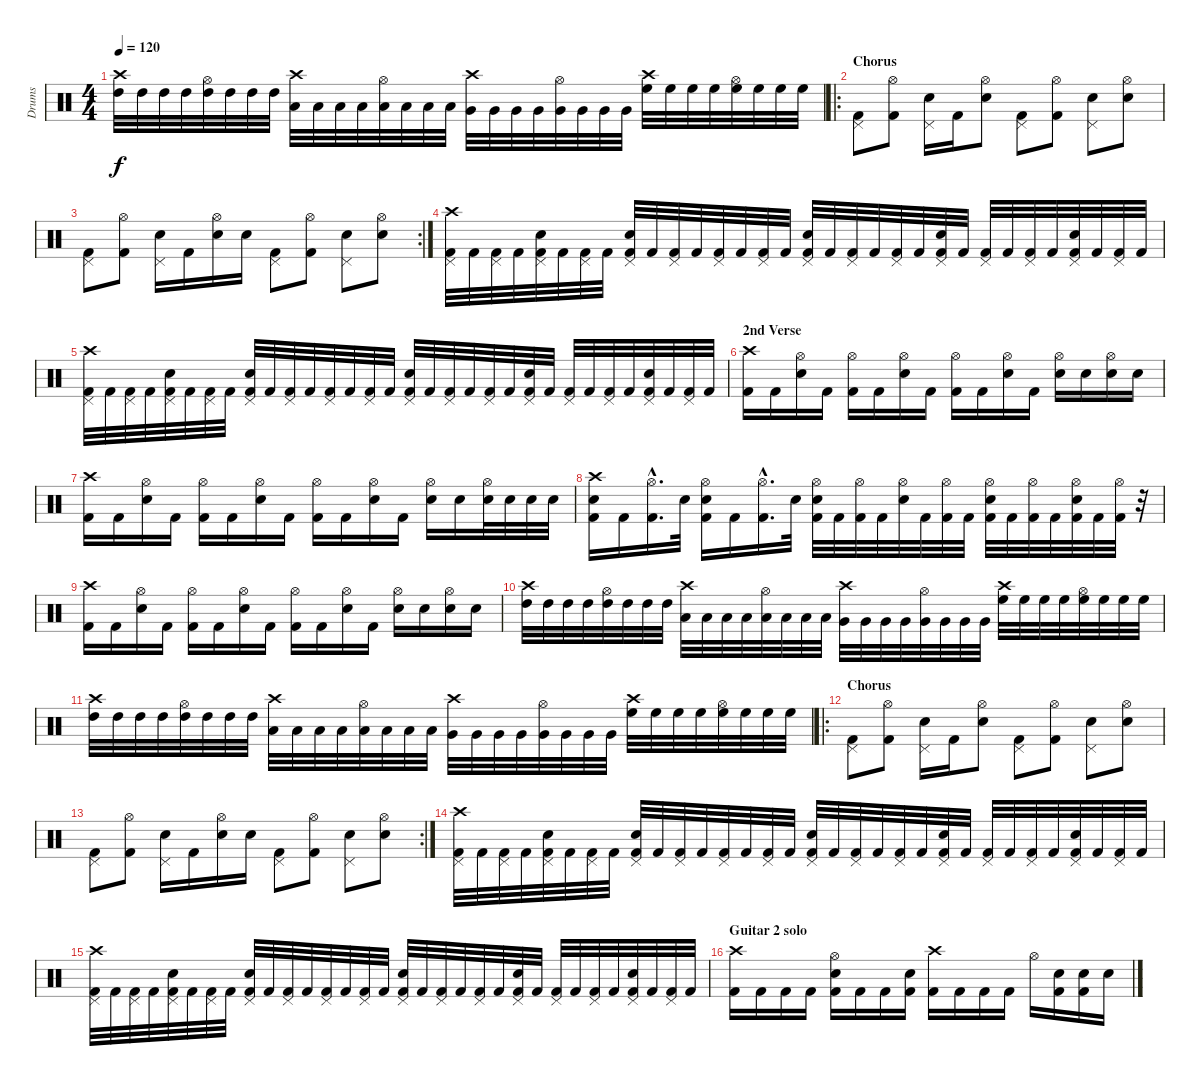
\track ("Drums" "Drums") {instrument percussion}
\staff {score}
\articulation defaults
\ts (4 4)
\tempo 120
\clef neutral
\ks c
("Crash high (hit)" "High Tom (hit)").32{dy f} "High Tom (hit)".32 "High Tom (hit)".32 "High Tom (hit)".32 ("Hi-Hat (open)" "High Tom (hit)").32 "High Tom (hit)".32 "High Tom (hit)".32 "High Tom (hit)".32 ("Crash high (hit)" "Low Tom (hit)").32 "Low Tom (hit)".32 "Low Tom (hit)".32 "Low Tom (hit)".32 ("Hi-Hat (open)" "Low Tom (hit)").32 "Low Tom (hit)".32 "Low Tom (hit)".32 "Low Tom (hit)".32 ("Crash high (hit)" "Very Low Tom (hit)").32 "Very Low Tom (hit)".32 "Very Low Tom (hit)".32 "Very Low Tom (hit)".32 ("Hi-Hat (open)" "Very Low Tom (hit)").32 "Very Low Tom (hit)".32 "Very Low Tom (hit)".32 "Very Low Tom (hit)".32 ("Crash high (hit)" "High Floor Tom (hit)").32 "High Floor Tom (hit)".32 "High Floor Tom (hit)".32 "High Floor Tom (hit)".32 ("Hi-Hat (open)" "High Floor Tom (hit)").32 "High Floor Tom (hit)".32 "High Floor Tom (hit)".32 "High Floor Tom (hit)".32 |
\ro
\section ("" "Chorus")
("Pedal Hi-Hat (hit)" "Kick (hit) 2").8 ("Hi-Hat (open)" "Kick (hit) 2").8 ("Pedal Hi-Hat (hit)" "Electric Snare (hit)").16 "Kick (hit) 2".16 ("Hi-Hat (open)" "Electric Snare (hit)").8 ("Pedal Hi-Hat (hit)" "Kick (hit) 2").8 ("Hi-Hat (open)" "Kick (hit) 2").8 ("Pedal Hi-Hat (hit)" "Electric Snare (hit)").8 ("Hi-Hat (open)" "Electric Snare (hit)").8 |
\rc 2
("Pedal Hi-Hat (hit)" "Kick (hit) 2").8 ("Hi-Hat (open)" "Kick (hit) 2").8 ("Pedal Hi-Hat (hit)" "Electric Snare (hit)").16 "Kick (hit) 2".16 ("Hi-Hat (open)" "Electric Snare (hit)").16 "Electric Snare (hit)".16 ("Pedal Hi-Hat (hit)" "Kick (hit) 2").8 ("Hi-Hat (open)" "Kick (hit) 2").8 ("Pedal Hi-Hat (hit)" "Electric Snare (hit)").8 ("Hi-Hat (open)" "Electric Snare (hit)").8 |
("Crash high (hit)" "Pedal Hi-Hat (hit)" "Kick (hit) 2").32 "Kick (hit) 2".32 ("Pedal Hi-Hat (hit)" "Kick (hit) 2").32 "Kick (hit) 2".32 ("Pedal Hi-Hat (hit)" "Electric Snare (hit)" "Kick (hit) 2").32 "Kick (hit) 2".32 ("Pedal Hi-Hat (hit)" "Kick (hit) 2").32 "Kick (hit) 2".32 ("Pedal Hi-Hat (hit)" "Electric Snare (hit)" "Kick (hit) 2").32 "Kick (hit) 2".32 ("Pedal Hi-Hat (hit)" "Kick (hit) 2").32 "Kick (hit) 2".32 ("Pedal Hi-Hat (hit)" "Kick (hit) 2").32 "Kick (hit) 2".32 ("Pedal Hi-Hat (hit)" "Kick (hit) 2").32 "Kick (hit) 2".32 ("Pedal Hi-Hat (hit)" "Electric Snare (hit)" "Kick (hit) 2").32 "Kick (hit) 2".32 ("Pedal Hi-Hat (hit)" "Kick (hit) 2").32 "Kick (hit) 2".32 ("Pedal Hi-Hat (hit)" "Kick (hit) 2").32 "Kick (hit) 2".32 ("Pedal Hi-Hat (hit)" "Electric Snare (hit)" "Kick (hit) 2").32 "Kick (hit) 2".32 ("Pedal Hi-Hat (hit)" "Kick (hit) 2").32 "Kick (hit) 2".32 ("Pedal Hi-Hat (hit)" "Kick (hit) 2").32 "Kick (hit) 2".32 ("Pedal Hi-Hat (hit)" "Electric Snare (hit)" "Kick (hit) 2").32 "Kick (hit) 2".32 ("Pedal Hi-Hat (hit)" "Kick (hit) 2").32 "Kick (hit) 2".32 |
("Crash high (hit)" "Pedal Hi-Hat (hit)" "Kick (hit) 2").32 "Kick (hit) 2".32 ("Pedal Hi-Hat (hit)" "Kick (hit) 2").32 "Kick (hit) 2".32 ("Pedal Hi-Hat (hit)" "Electric Snare (hit)" "Kick (hit) 2").32 "Kick (hit) 2".32 ("Pedal Hi-Hat (hit)" "Kick (hit) 2").32 "Kick (hit) 2".32 ("Pedal Hi-Hat (hit)" "Electric Snare (hit)" "Kick (hit) 2").32 "Kick (hit) 2".32 ("Pedal Hi-Hat (hit)" "Kick (hit) 2").32 "Kick (hit) 2".32 ("Pedal Hi-Hat (hit)" "Kick (hit) 2").32 "Kick (hit) 2".32 ("Pedal Hi-Hat (hit)" "Kick (hit) 2").32 "Kick (hit) 2".32 ("Pedal Hi-Hat (hit)" "Electric Snare (hit)" "Kick (hit) 2").32 "Kick (hit) 2".32 ("Pedal Hi-Hat (hit)" "Kick (hit) 2").32 "Kick (hit) 2".32 ("Pedal Hi-Hat (hit)" "Kick (hit) 2").32 "Kick (hit) 2".32 ("Pedal Hi-Hat (hit)" "Electric Snare (hit)" "Kick (hit) 2").32 "Kick (hit) 2".32 ("Pedal Hi-Hat (hit)" "Kick (hit) 2").32 "Kick (hit) 2".32 ("Pedal Hi-Hat (hit)" "Kick (hit) 2").32 "Kick (hit) 2".32 ("Pedal Hi-Hat (hit)" "Electric Snare (hit)" "Kick (hit) 2").32 "Kick (hit) 2".32 ("Pedal Hi-Hat (hit)" "Kick (hit) 2").32 "Kick (hit) 2".32 |
\section ("" "2nd Verse")
("Crash high (hit)" "Kick (hit) 2").16 "Kick (hit) 2".16 ("Hi-Hat (open)" "Electric Snare (hit)").16 "Kick (hit) 2".16 ("Hi-Hat (open)" "Kick (hit) 2").16 "Kick (hit) 2".16 ("Hi-Hat (open)" "Electric Snare (hit)").16 "Kick (hit) 2".16 ("Hi-Hat (open)" "Kick (hit) 2").16 "Kick (hit) 2".16 ("Hi-Hat (open)" "Electric Snare (hit)").16 "Kick (hit) 2".16 ("Hi-Hat (open)" "Electric Snare (hit)").16 "Electric Snare (hit)".16 ("Hi-Hat (open)" "Electric Snare (hit)").16 "Electric Snare (hit)".16 |
("Crash high (hit)" "Kick (hit) 2").16 "Kick (hit) 2".16 ("Hi-Hat (open)" "Electric Snare (hit)").16 "Kick (hit) 2".16 ("Hi-Hat (open)" "Kick (hit) 2").16 "Kick (hit) 2".16 ("Hi-Hat (open)" "Electric Snare (hit)").16 "Kick (hit) 2".16 ("Hi-Hat (open)" "Kick (hit) 2").16 "Kick (hit) 2".16 ("Hi-Hat (open)" "Electric Snare (hit)").16 "Kick (hit) 2".16 ("Hi-Hat (open)" "Electric Snare (hit)").16 "Electric Snare (hit)".16 ("Hi-Hat (open)" "Electric Snare (hit)").32 "Electric Snare (hit)".32 "Electric Snare (hit)".32 "Electric Snare (hit)".32 |
("Crash high (hit)" "Electric Snare (hit)" "Kick (hit) 2").16 "Kick (hit) 2".16 ("Hi-Hat (open)"{hac} "Kick (hit) 2"{hac}).16{d} "Electric Snare (hit)".32 ("Hi-Hat (open)" "Electric Snare (hit)" "Kick (hit) 2").16 "Kick (hit) 2".16 ("Hi-Hat (open)"{hac} "Kick (hit) 2"{hac}).16{d} "Electric Snare (hit)".32 ("Hi-Hat (open)" "Electric Snare (hit)" "Kick (hit) 2").32 "Kick (hit) 2".32 ("Hi-Hat (open)" "Kick (hit) 2").32 "Kick (hit) 2".32 ("Hi-Hat (open)" "Electric Snare (hit)").32 "Kick (hit) 2".32 ("Hi-Hat (open)" "Kick (hit) 2").32 "Kick (hit) 2".32 ("Hi-Hat (open)" "Electric Snare (hit)" "Kick (hit) 2").32 "Kick (hit) 2".32 ("Hi-Hat (open)" "Kick (hit) 2").32 "Kick (hit) 2".32 ("Hi-Hat (open)" "Electric Snare (hit)" "Kick (hit) 2").32 "Kick (hit) 2".32 ("Hi-Hat (open)" "Kick (hit) 2").32 r.32 |
("Crash high (hit)" "Kick (hit) 2").16 "Kick (hit) 2".16 ("Hi-Hat (open)" "Electric Snare (hit)").16 "Kick (hit) 2".16 ("Hi-Hat (open)" "Kick (hit) 2").16 "Kick (hit) 2".16 ("Hi-Hat (open)" "Electric Snare (hit)").16 "Kick (hit) 2".16 ("Hi-Hat (open)" "Kick (hit) 2").16 "Kick (hit) 2".16 ("Hi-Hat (open)" "Electric Snare (hit)").16 "Kick (hit) 2".16 ("Hi-Hat (open)" "Electric Snare (hit)").16 "Electric Snare (hit)".16 ("Hi-Hat (open)" "Electric Snare (hit)").16 "Electric Snare (hit)".16 |
("Crash high (hit)" "High Tom (hit)").32 "High Tom (hit)".32 "High Tom (hit)".32 "High Tom (hit)".32 ("Hi-Hat (open)" "High Tom (hit)").32 "High Tom (hit)".32 "High Tom (hit)".32 "High Tom (hit)".32 ("Crash high (hit)" "Low Tom (hit)").32 "Low Tom (hit)".32 "Low Tom (hit)".32 "Low Tom (hit)".32 ("Hi-Hat (open)" "Low Tom (hit)").32 "Low Tom (hit)".32 "Low Tom (hit)".32 "Low Tom (hit)".32 ("Crash high (hit)" "Very Low Tom (hit)").32 "Very Low Tom (hit)".32 "Very Low Tom (hit)".32 "Very Low Tom (hit)".32 ("Hi-Hat (open)" "Very Low Tom (hit)").32 "Very Low Tom (hit)".32 "Very Low Tom (hit)".32 "Very Low Tom (hit)".32 ("Crash high (hit)" "High Floor Tom (hit)").32 "High Floor Tom (hit)".32 "High Floor Tom (hit)".32 "High Floor Tom (hit)".32 ("Hi-Hat (open)" "High Floor Tom (hit)").32 "High Floor Tom (hit)".32 "High Floor Tom (hit)".32 "High Floor Tom (hit)".32 |
("Crash high (hit)" "High Tom (hit)").32 "High Tom (hit)".32 "High Tom (hit)".32 "High Tom (hit)".32 ("Hi-Hat (open)" "High Tom (hit)").32 "High Tom (hit)".32 "High Tom (hit)".32 "High Tom (hit)".32 ("Crash high (hit)" "Low Tom (hit)").32 "Low Tom (hit)".32 "Low Tom (hit)".32 "Low Tom (hit)".32 ("Hi-Hat (open)" "Low Tom (hit)").32 "Low Tom (hit)".32 "Low Tom (hit)".32 "Low Tom (hit)".32 ("Crash high (hit)" "Very Low Tom (hit)").32 "Very Low Tom (hit)".32 "Very Low Tom (hit)".32 "Very Low Tom (hit)".32 ("Hi-Hat (open)" "Very Low Tom (hit)").32 "Very Low Tom (hit)".32 "Very Low Tom (hit)".32 "Very Low Tom (hit)".32 ("Crash high (hit)" "High Floor Tom (hit)").32 "High Floor Tom (hit)".32 "High Floor Tom (hit)".32 "High Floor Tom (hit)".32 ("Hi-Hat (open)" "High Floor Tom (hit)").32 "High Floor Tom (hit)".32 "High Floor Tom (hit)".32 "High Floor Tom (hit)".32 |
\ro
\section ("" "Chorus")
("Pedal Hi-Hat (hit)" "Kick (hit) 2").8 ("Hi-Hat (open)" "Kick (hit) 2").8 ("Pedal Hi-Hat (hit)" "Electric Snare (hit)").16 "Kick (hit) 2".16 ("Hi-Hat (open)" "Electric Snare (hit)").8 ("Pedal Hi-Hat (hit)" "Kick (hit) 2").8 ("Hi-Hat (open)" "Kick (hit) 2").8 ("Pedal Hi-Hat (hit)" "Electric Snare (hit)").8 ("Hi-Hat (open)" "Electric Snare (hit)").8 |
\rc 2
("Pedal Hi-Hat (hit)" "Kick (hit) 2").8 ("Hi-Hat (open)" "Kick (hit) 2").8 ("Pedal Hi-Hat (hit)" "Electric Snare (hit)").16 "Kick (hit) 2".16 ("Hi-Hat (open)" "Electric Snare (hit)").16 "Electric Snare (hit)".16 ("Pedal Hi-Hat (hit)" "Kick (hit) 2").8 ("Hi-Hat (open)" "Kick (hit) 2").8 ("Pedal Hi-Hat (hit)" "Electric Snare (hit)").8 ("Hi-Hat (open)" "Electric Snare (hit)").8 |
("Crash high (hit)" "Pedal Hi-Hat (hit)" "Kick (hit) 2").32 "Kick (hit) 2".32 ("Pedal Hi-Hat (hit)" "Kick (hit) 2").32 "Kick (hit) 2".32 ("Pedal Hi-Hat (hit)" "Electric Snare (hit)" "Kick (hit) 2").32 "Kick (hit) 2".32 ("Pedal Hi-Hat (hit)" "Kick (hit) 2").32 "Kick (hit) 2".32 ("Pedal Hi-Hat (hit)" "Electric Snare (hit)" "Kick (hit) 2").32 "Kick (hit) 2".32 ("Pedal Hi-Hat (hit)" "Kick (hit) 2").32 "Kick (hit) 2".32 ("Pedal Hi-Hat (hit)" "Kick (hit) 2").32 "Kick (hit) 2".32 ("Pedal Hi-Hat (hit)" "Kick (hit) 2").32 "Kick (hit) 2".32 ("Pedal Hi-Hat (hit)" "Electric Snare (hit)" "Kick (hit) 2").32 "Kick (hit) 2".32 ("Pedal Hi-Hat (hit)" "Kick (hit) 2").32 "Kick (hit) 2".32 ("Pedal Hi-Hat (hit)" "Kick (hit) 2").32 "Kick (hit) 2".32 ("Pedal Hi-Hat (hit)" "Electric Snare (hit)" "Kick (hit) 2").32 "Kick (hit) 2".32 ("Pedal Hi-Hat (hit)" "Kick (hit) 2").32 "Kick (hit) 2".32 ("Pedal Hi-Hat (hit)" "Kick (hit) 2").32 "Kick (hit) 2".32 ("Pedal Hi-Hat (hit)" "Electric Snare (hit)" "Kick (hit) 2").32 "Kick (hit) 2".32 ("Pedal Hi-Hat (hit)" "Kick (hit) 2").32 "Kick (hit) 2".32 |
("Crash high (hit)" "Pedal Hi-Hat (hit)" "Kick (hit) 2").32 "Kick (hit) 2".32 ("Pedal Hi-Hat (hit)" "Kick (hit) 2").32 "Kick (hit) 2".32 ("Pedal Hi-Hat (hit)" "Electric Snare (hit)" "Kick (hit) 2").32 "Kick (hit) 2".32 ("Pedal Hi-Hat (hit)" "Kick (hit) 2").32 "Kick (hit) 2".32 ("Pedal Hi-Hat (hit)" "Electric Snare (hit)" "Kick (hit) 2").32 "Kick (hit) 2".32 ("Pedal Hi-Hat (hit)" "Kick (hit) 2").32 "Kick (hit) 2".32 ("Pedal Hi-Hat (hit)" "Kick (hit) 2").32 "Kick (hit) 2".32 ("Pedal Hi-Hat (hit)" "Kick (hit) 2").32 "Kick (hit) 2".32 ("Pedal Hi-Hat (hit)" "Electric Snare (hit)" "Kick (hit) 2").32 "Kick (hit) 2".32 ("Pedal Hi-Hat (hit)" "Kick (hit) 2").32 "Kick (hit) 2".32 ("Pedal Hi-Hat (hit)" "Kick (hit) 2").32 "Kick (hit) 2".32 ("Pedal Hi-Hat (hit)" "Electric Snare (hit)" "Kick (hit) 2").32 "Kick (hit) 2".32 ("Pedal Hi-Hat (hit)" "Kick (hit) 2").32 "Kick (hit) 2".32 ("Pedal Hi-Hat (hit)" "Kick (hit) 2").32 "Kick (hit) 2".32 ("Pedal Hi-Hat (hit)" "Electric Snare (hit)" "Kick (hit) 2").32 "Kick (hit) 2".32 ("Pedal Hi-Hat (hit)" "Kick (hit) 2").32 "Kick (hit) 2".32 |
\section ("" "Guitar 2 solo")
("Crash high (hit)" "Kick (hit) 2").16 "Kick (hit) 2".16 "Kick (hit) 2".16 "Kick (hit) 2".16 ("Hi-Hat (open)" "Electric Snare (hit)" "Kick (hit) 2").16 "Kick (hit) 2".16 "Kick (hit) 2".16 ("Electric Snare (hit)" "Kick (hit) 2").16 ("Crash high (hit)" "Kick (hit) 2").16 "Kick (hit) 2".16 "Kick (hit) 2".16 "Kick (hit) 2".16 "Hi-Hat (open)".16 ("Electric Snare (hit)" "Kick (hit) 2").16 ("Electric Snare (hit)" "Kick (hit) 2").16 "Electric Snare (hit)".16
